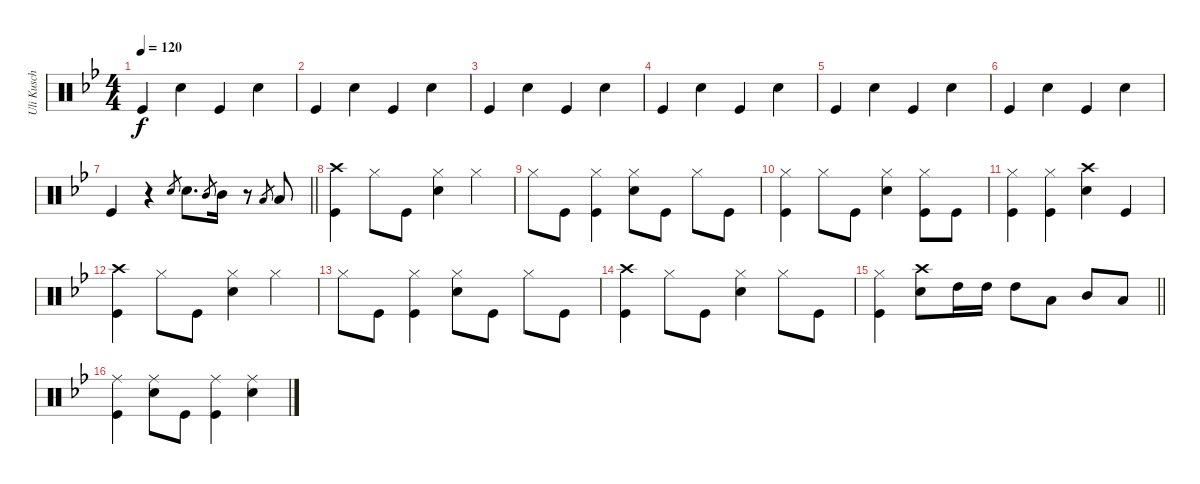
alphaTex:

\track ("Uli Kusch" "Uli Kusch") {instrument percussion}
\staff {score}
\articulation defaults
\ts (4 4)
\tempo 120
\clef neutral
\ks gminor "Kick (hit)".4{dy f} "Snare (hit) 2".4 "Kick (hit)".4 "Snare (hit) 2".4
|
"Kick (hit)".4 "Snare (hit) 2".4 "Kick (hit)".4 "Snare (hit) 2".4 |
"Kick (hit)".4 "Snare (hit) 2".4 "Kick (hit)".4 "Snare (hit) 2".4 |
"Kick (hit)".4 "Snare (hit) 2".4 "Kick (hit)".4 "Snare (hit) 2".4 |
"Kick (hit)".4 "Snare (hit) 2".4 "Kick (hit)".4 "Snare (hit) 2".4 |
"Kick (hit)".4 "Snare (hit) 2".4 "Kick (hit)".4 "Snare (hit) 2".4 |
\barLineRight lightlight "Kick (hit)".4
r.4 "Snare (hit) 2".8{gr} "Snare (hit) 2".8{d} "Mid Tom (hit)".8{gr} "Mid Tom (hit)".16 r.8 "Low Tom (hit)".8{gr} "Low Tom (hit)".8 |
("Crash high (hit)" "Kick (hit)").4 "Hi-Hat (closed)".8 "Kick (hit)".8 ("Hi-Hat (closed)" "Snare (hit) 2").4 "Hi-Hat (closed)".4 |
"Hi-Hat (closed)".8 "Kick (hit)".8 ("Hi-Hat (closed)" "Kick (hit)").4 ("Hi-Hat (closed)" "Snare (hit) 2").8 "Kick (hit)".8 "Hi-Hat (closed)".8 "Kick (hit)".8 |
("Hi-Hat (closed)" "Kick (hit)").4 "Hi-Hat (closed)".8 "Kick (hit)".8 ("Hi-Hat (closed)" "Snare (hit) 2").4 ("Hi-Hat (closed)" "Kick (hit)").8 "Kick (hit)".8 |
("Hi-Hat (closed)" "Kick (hit)").4 ("Hi-Hat (closed)" "Kick (hit)").4 ("Crash high (hit)" "Snare (hit) 2").4 "Kick (hit)".4 |
("Crash high (hit)" "Kick (hit)").4 "Hi-Hat (closed)".8 "Kick (hit)".8 ("Hi-Hat (closed)" "Snare (hit) 2").4 "Hi-Hat (closed)".4 |
"Hi-Hat (closed)".8 "Kick (hit)".8 ("Hi-Hat (closed)" "Kick (hit)").4 ("Hi-Hat (closed)" "Snare (hit) 2").8 "Kick (hit)".8 "Hi-Hat (closed)".8 "Kick (hit)".8 |
("Crash high (hit)" "Kick (hit)").4 "Hi-Hat (closed)".8 "Kick (hit)".8 ("Hi-Hat (closed)" "Snare (hit) 2").4 "Hi-Hat (closed)".8 "Kick (hit)".8 |
\barLineRight lightlight
("Hi-Hat (closed)" "Kick (hit)").4 ("Crash high (hit)" "Snare (hit) 2").8 "High Tom (hit)".16 "High Tom (hit)".16 "High Tom (hit)".8 "Low Tom (hit)".8 "Mid Tom (hit)".8 "Low Tom (hit)".8 |
("Ride (middle)" "Kick (hit)").4 ("Ride (middle)" "Snare (hit) 2").8 "Kick (hit)".8 ("Ride (middle)" "Kick (hit)").4 ("Ride (middle)" "Snare (hit) 2").4
